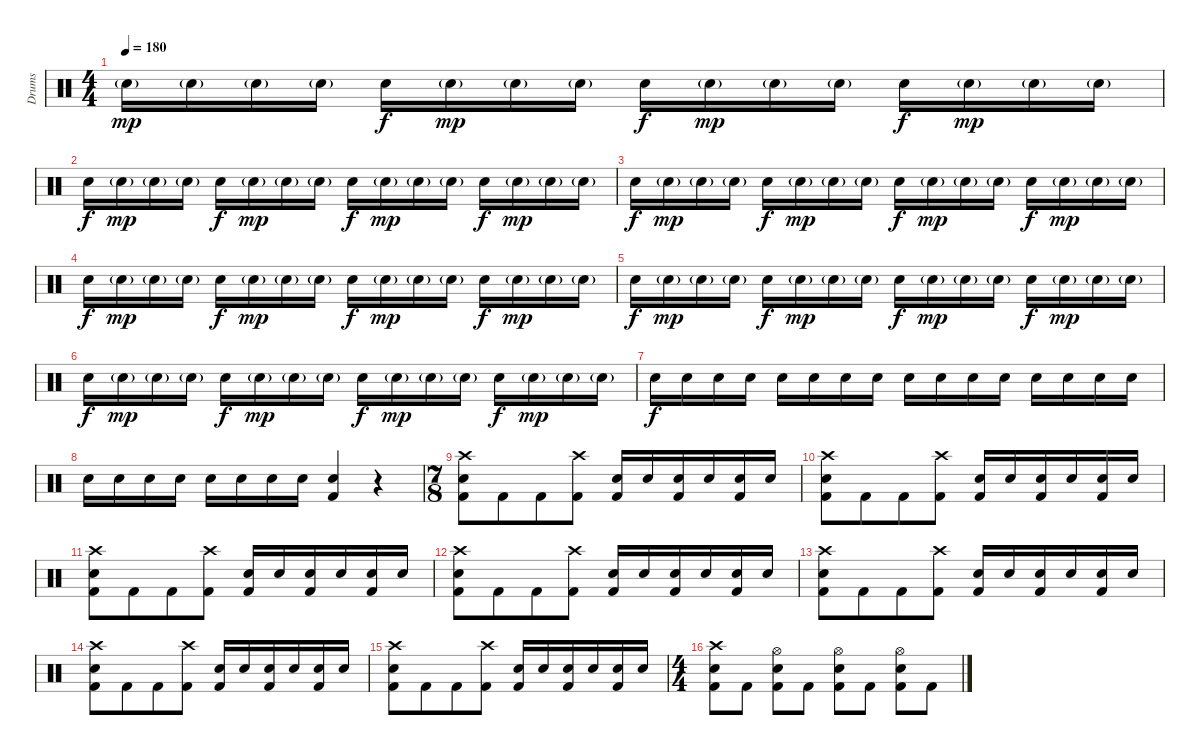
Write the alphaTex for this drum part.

\track ("Drums" "Drums") {instrument percussion}
\staff {score}
\articulation defaults
\ts (4 4)
\tempo 180
\clef neutral
\ks c "Snare (hit) 2"{g}.16{dy mp volume 11} "Snare (hit) 2"{g}.16 "Snare (hit) 2"{g}.16 "Snare (hit) 2"{g}.16 "Snare (hit) 2".16{dy f} "Snare (hit) 2"{g}.16{dy mp} "Snare (hit) 2"{g}.16 "Snare (hit) 2"{g}.16 "Snare (hit) 2".16{dy f} "Snare (hit) 2"{g}.16{dy mp} "Snare (hit) 2"{g}.16 "Snare (hit) 2"{g}.16 "Snare (hit) 2".16{dy f} "Snare (hit) 2"{g}.16{dy mp} "Snare (hit) 2"{g}.16 "Snare (hit) 2"{g}.16
|
"Snare (hit) 2".16{dy f} "Snare (hit) 2"{g}.16{dy mp} "Snare (hit) 2"{g}.16 "Snare (hit) 2"{g}.16 "Snare (hit) 2".16{dy f} "Snare (hit) 2"{g}.16{dy mp} "Snare (hit) 2"{g}.16 "Snare (hit) 2"{g}.16 "Snare (hit) 2".16{dy f} "Snare (hit) 2"{g}.16{dy mp} "Snare (hit) 2"{g}.16 "Snare (hit) 2"{g}.16 "Snare (hit) 2".16{dy f} "Snare (hit) 2"{g}.16{dy mp} "Snare (hit) 2"{g}.16 "Snare (hit) 2"{g}.16 |
"Snare (hit) 2".16{dy f} "Snare (hit) 2"{g}.16{dy mp} "Snare (hit) 2"{g}.16 "Snare (hit) 2"{g}.16 "Snare (hit) 2".16{dy f} "Snare (hit) 2"{g}.16{dy mp} "Snare (hit) 2"{g}.16 "Snare (hit) 2"{g}.16 "Snare (hit) 2".16{dy f} "Snare (hit) 2"{g}.16{dy mp} "Snare (hit) 2"{g}.16 "Snare (hit) 2"{g}.16 "Snare (hit) 2".16{dy f} "Snare (hit) 2"{g}.16{dy mp} "Snare (hit) 2"{g}.16 "Snare (hit) 2"{g}.16 |
"Snare (hit) 2".16{dy f} "Snare (hit) 2"{g}.16{dy mp} "Snare (hit) 2"{g}.16 "Snare (hit) 2"{g}.16 "Snare (hit) 2".16{dy f} "Snare (hit) 2"{g}.16{dy mp} "Snare (hit) 2"{g}.16 "Snare (hit) 2"{g}.16 "Snare (hit) 2".16{dy f} "Snare (hit) 2"{g}.16{dy mp} "Snare (hit) 2"{g}.16 "Snare (hit) 2"{g}.16 "Snare (hit) 2".16{dy f} "Snare (hit) 2"{g}.16{dy mp} "Snare (hit) 2"{g}.16 "Snare (hit) 2"{g}.16 |
"Snare (hit) 2".16{dy f} "Snare (hit) 2"{g}.16{dy mp} "Snare (hit) 2"{g}.16 "Snare (hit) 2"{g}.16 "Snare (hit) 2".16{dy f} "Snare (hit) 2"{g}.16{dy mp} "Snare (hit) 2"{g}.16 "Snare (hit) 2"{g}.16 "Snare (hit) 2".16{dy f} "Snare (hit) 2"{g}.16{dy mp} "Snare (hit) 2"{g}.16 "Snare (hit) 2"{g}.16 "Snare (hit) 2".16{dy f} "Snare (hit) 2"{g}.16{dy mp} "Snare (hit) 2"{g}.16 "Snare (hit) 2"{g}.16 |
"Snare (hit) 2".16{dy f} "Snare (hit) 2"{g}.16{dy mp} "Snare (hit) 2"{g}.16 "Snare (hit) 2"{g}.16 "Snare (hit) 2".16{dy f} "Snare (hit) 2"{g}.16{dy mp} "Snare (hit) 2"{g}.16 "Snare (hit) 2"{g}.16 "Snare (hit) 2".16{dy f} "Snare (hit) 2"{g}.16{dy mp} "Snare (hit) 2"{g}.16 "Snare (hit) 2"{g}.16 "Snare (hit) 2".16{dy f} "Snare (hit) 2"{g}.16{dy mp} "Snare (hit) 2"{g}.16 "Snare (hit) 2"{g}.16 |
"Snare (hit) 2".16{dy f} "Snare (hit) 2".16 "Snare (hit) 2".16 "Snare (hit) 2".16 "Snare (hit) 2".16 "Snare (hit) 2".16 "Snare (hit) 2".16 "Snare (hit) 2".16 "Snare (hit) 2".16 "Snare (hit) 2".16 "Snare (hit) 2".16 "Snare (hit) 2".16 "Snare (hit) 2".16 "Snare (hit) 2".16 "Snare (hit) 2".16 "Snare (hit) 2".16 |
"Snare (hit) 2".16 "Snare (hit) 2".16 "Snare (hit) 2".16 "Snare (hit) 2".16 "Snare (hit) 2".16 "Snare (hit) 2".16 "Snare (hit) 2".16 "Snare (hit) 2".16 ("Kick (hit) 2" "Snare (hit) 2").4 r.4 |
\ts (7 8)
("Crash high (hit)" "Snare (hit) 2" "Kick (hit) 2").8 "Kick (hit) 2".8 "Kick (hit) 2".8 ("Crash high (hit)" "Kick (hit) 2").8 ("Kick (hit) 2" "Snare (hit) 2").16 "Snare (hit) 2".16 ("Kick (hit) 2" "Snare (hit) 2").16 "Snare (hit) 2".16 ("Kick (hit) 2" "Snare (hit) 2").16 "Snare (hit) 2".16 |
("Crash high (hit)" "Snare (hit) 2" "Kick (hit) 2").8 "Kick (hit) 2".8 "Kick (hit) 2".8 ("Crash high (hit)" "Kick (hit) 2").8 ("Kick (hit) 2" "Snare (hit) 2").16 "Snare (hit) 2".16 ("Kick (hit) 2" "Snare (hit) 2").16 "Snare (hit) 2".16 ("Kick (hit) 2" "Snare (hit) 2").16 "Snare (hit) 2".16 |
("Crash high (hit)" "Snare (hit) 2" "Kick (hit) 2").8 "Kick (hit) 2".8 "Kick (hit) 2".8 ("Crash high (hit)" "Kick (hit) 2").8 ("Kick (hit) 2" "Snare (hit) 2").16 "Snare (hit) 2".16 ("Kick (hit) 2" "Snare (hit) 2").16 "Snare (hit) 2".16 ("Kick (hit) 2" "Snare (hit) 2").16 "Snare (hit) 2".16 |
("Crash high (hit)" "Snare (hit) 2" "Kick (hit) 2").8 "Kick (hit) 2".8 "Kick (hit) 2".8 ("Crash high (hit)" "Kick (hit) 2").8 ("Kick (hit) 2" "Snare (hit) 2").16 "Snare (hit) 2".16 ("Kick (hit) 2" "Snare (hit) 2").16 "Snare (hit) 2".16 ("Kick (hit) 2" "Snare (hit) 2").16 "Snare (hit) 2".16 |
("Crash high (hit)" "Snare (hit) 2" "Kick (hit) 2").8 "Kick (hit) 2".8 "Kick (hit) 2".8 ("Crash high (hit)" "Kick (hit) 2").8 ("Kick (hit) 2" "Snare (hit) 2").16 "Snare (hit) 2".16 ("Kick (hit) 2" "Snare (hit) 2").16 "Snare (hit) 2".16 ("Kick (hit) 2" "Snare (hit) 2").16 "Snare (hit) 2".16 |
("Crash high (hit)" "Snare (hit) 2" "Kick (hit) 2").8 "Kick (hit) 2".8 "Kick (hit) 2".8 ("Crash high (hit)" "Kick (hit) 2").8 ("Kick (hit) 2" "Snare (hit) 2").16 "Snare (hit) 2".16 ("Kick (hit) 2" "Snare (hit) 2").16 "Snare (hit) 2".16 ("Kick (hit) 2" "Snare (hit) 2").16 "Snare (hit) 2".16 |
("Crash high (hit)" "Snare (hit) 2" "Kick (hit) 2").8 "Kick (hit) 2".8 "Kick (hit) 2".8 ("Crash high (hit)" "Kick (hit) 2").8 ("Kick (hit) 2" "Snare (hit) 2").16 "Snare (hit) 2".16 ("Kick (hit) 2" "Snare (hit) 2").16 "Snare (hit) 2".16 ("Kick (hit) 2" "Snare (hit) 2").16 "Snare (hit) 2".16 |
\ts (4 4)
("Crash high (hit)" "Snare (hit) 2" "Kick (hit) 2").8 "Kick (hit) 2".8 ("Hi-Hat (open)" "Snare (hit) 2" "Kick (hit) 2").8 "Kick (hit) 2".8 ("Hi-Hat (open)" "Snare (hit) 2" "Kick (hit) 2").8 "Kick (hit) 2".8 ("Hi-Hat (open)" "Snare (hit) 2" "Kick (hit) 2").8 "Kick (hit) 2".8
